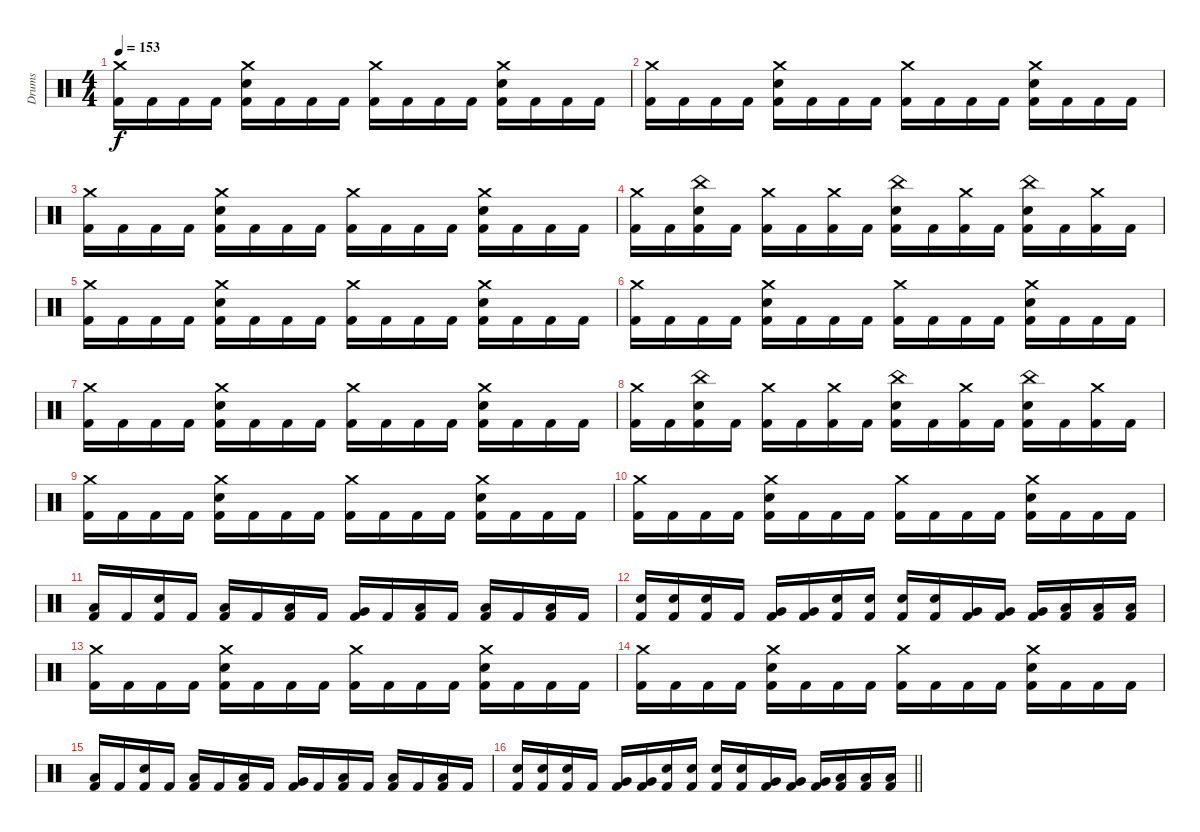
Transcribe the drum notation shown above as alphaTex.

\track ("Drums" "Drums") {instrument percussion}
\staff {score}
\articulation defaults
\ts (4 4)
\tempo 153
\clef neutral
\ks c
("Crash medium (hit)" "Kick (hit) 2").16{dy f} "Kick (hit) 2".16 "Kick (hit) 2".16 "Kick (hit) 2".16 ("Crash medium (hit)" "Electric Snare (hit)" "Kick (hit) 2").16 "Kick (hit) 2".16 "Kick (hit) 2".16 "Kick (hit) 2".16 ("Crash medium (hit)" "Kick (hit) 2").16 "Kick (hit) 2".16 "Kick (hit) 2".16 "Kick (hit) 2".16 ("Crash medium (hit)" "Electric Snare (hit)" "Kick (hit) 2").16 "Kick (hit) 2".16 "Kick (hit) 2".16 "Kick (hit) 2".16 |
("Crash medium (hit)" "Kick (hit) 2").16 "Kick (hit) 2".16 "Kick (hit) 2".16 "Kick (hit) 2".16 ("Crash medium (hit)" "Electric Snare (hit)" "Kick (hit) 2").16 "Kick (hit) 2".16 "Kick (hit) 2".16 "Kick (hit) 2".16 ("Crash medium (hit)" "Kick (hit) 2").16 "Kick (hit) 2".16 "Kick (hit) 2".16 "Kick (hit) 2".16 ("Crash medium (hit)" "Electric Snare (hit)" "Kick (hit) 2").16 "Kick (hit) 2".16 "Kick (hit) 2".16 "Kick (hit) 2".16 |
("Crash medium (hit)" "Kick (hit) 2").16 "Kick (hit) 2".16 "Kick (hit) 2".16 "Kick (hit) 2".16 ("Crash medium (hit)" "Electric Snare (hit)" "Kick (hit) 2").16 "Kick (hit) 2".16 "Kick (hit) 2".16 "Kick (hit) 2".16 ("Crash medium (hit)" "Kick (hit) 2").16 "Kick (hit) 2".16 "Kick (hit) 2".16 "Kick (hit) 2".16 ("Crash medium (hit)" "Electric Snare (hit)" "Kick (hit) 2").16 "Kick (hit) 2".16 "Kick (hit) 2".16 "Kick (hit) 2".16 |
("Crash medium (hit)" "Kick (hit) 2").16 "Kick (hit) 2".16 ("China (hit)" "Electric Snare (hit)" "Kick (hit) 2").16 "Kick (hit) 2".16 ("Crash medium (hit)" "Kick (hit) 2").16 "Kick (hit) 2".16 ("Crash medium (hit)" "Kick (hit) 2").16 "Kick (hit) 2".16 ("China (hit)" "Electric Snare (hit)" "Kick (hit) 2").16 "Kick (hit) 2".16 ("Crash medium (hit)" "Kick (hit) 2").16 "Kick (hit) 2".16 ("China (hit)" "Electric Snare (hit)" "Kick (hit) 2").16 "Kick (hit) 2".16 ("Crash medium (hit)" "Kick (hit) 2").16 "Kick (hit) 2".16 |
("Crash medium (hit)" "Kick (hit) 2").16 "Kick (hit) 2".16 "Kick (hit) 2".16 "Kick (hit) 2".16 ("Crash medium (hit)" "Electric Snare (hit)" "Kick (hit) 2").16 "Kick (hit) 2".16 "Kick (hit) 2".16 "Kick (hit) 2".16 ("Crash medium (hit)" "Kick (hit) 2").16 "Kick (hit) 2".16 "Kick (hit) 2".16 "Kick (hit) 2".16 ("Crash medium (hit)" "Electric Snare (hit)" "Kick (hit) 2").16 "Kick (hit) 2".16 "Kick (hit) 2".16 "Kick (hit) 2".16 |
("Crash medium (hit)" "Kick (hit) 2").16 "Kick (hit) 2".16 "Kick (hit) 2".16 "Kick (hit) 2".16 ("Crash medium (hit)" "Electric Snare (hit)" "Kick (hit) 2").16 "Kick (hit) 2".16 "Kick (hit) 2".16 "Kick (hit) 2".16 ("Crash medium (hit)" "Kick (hit) 2").16 "Kick (hit) 2".16 "Kick (hit) 2".16 "Kick (hit) 2".16 ("Crash medium (hit)" "Electric Snare (hit)" "Kick (hit) 2").16 "Kick (hit) 2".16 "Kick (hit) 2".16 "Kick (hit) 2".16 |
("Crash medium (hit)" "Kick (hit) 2").16 "Kick (hit) 2".16 "Kick (hit) 2".16 "Kick (hit) 2".16 ("Crash medium (hit)" "Electric Snare (hit)" "Kick (hit) 2").16 "Kick (hit) 2".16 "Kick (hit) 2".16 "Kick (hit) 2".16 ("Crash medium (hit)" "Kick (hit) 2").16 "Kick (hit) 2".16 "Kick (hit) 2".16 "Kick (hit) 2".16 ("Crash medium (hit)" "Electric Snare (hit)" "Kick (hit) 2").16 "Kick (hit) 2".16 "Kick (hit) 2".16 "Kick (hit) 2".16 |
("Crash medium (hit)" "Kick (hit) 2").16 "Kick (hit) 2".16 ("China (hit)" "Electric Snare (hit)" "Kick (hit) 2").16 "Kick (hit) 2".16 ("Crash medium (hit)" "Kick (hit) 2").16 "Kick (hit) 2".16 ("Crash medium (hit)" "Kick (hit) 2").16 "Kick (hit) 2".16 ("China (hit)" "Electric Snare (hit)" "Kick (hit) 2").16 "Kick (hit) 2".16 ("Crash medium (hit)" "Kick (hit) 2").16 "Kick (hit) 2".16 ("China (hit)" "Electric Snare (hit)" "Kick (hit) 2").16 "Kick (hit) 2".16 ("Crash medium (hit)" "Kick (hit) 2").16 "Kick (hit) 2".16 |
("Crash medium (hit)" "Kick (hit) 2").16 "Kick (hit) 2".16 "Kick (hit) 2".16 "Kick (hit) 2".16 ("Crash medium (hit)" "Electric Snare (hit)" "Kick (hit) 2").16 "Kick (hit) 2".16 "Kick (hit) 2".16 "Kick (hit) 2".16 ("Crash medium (hit)" "Kick (hit) 2").16 "Kick (hit) 2".16 "Kick (hit) 2".16 "Kick (hit) 2".16 ("Crash medium (hit)" "Electric Snare (hit)" "Kick (hit) 2").16 "Kick (hit) 2".16 "Kick (hit) 2".16 "Kick (hit) 2".16 |
("Crash medium (hit)" "Kick (hit) 2").16 "Kick (hit) 2".16 "Kick (hit) 2".16 "Kick (hit) 2".16 ("Crash medium (hit)" "Electric Snare (hit)" "Kick (hit) 2").16 "Kick (hit) 2".16 "Kick (hit) 2".16 "Kick (hit) 2".16 ("Crash medium (hit)" "Kick (hit) 2").16 "Kick (hit) 2".16 "Kick (hit) 2".16 "Kick (hit) 2".16 ("Crash medium (hit)" "Electric Snare (hit)" "Kick (hit) 2").16 "Kick (hit) 2".16 "Kick (hit) 2".16 "Kick (hit) 2".16 |
("Low Tom (hit)" "Kick (hit) 2").16 "Kick (hit) 2".16 ("Electric Snare (hit)" "Kick (hit) 2").16 "Kick (hit) 2".16 ("Low Tom (hit)" "Kick (hit) 2").16 "Kick (hit) 2".16 ("Low Tom (hit)" "Kick (hit) 2").16 "Kick (hit) 2".16 ("Very Low Tom (hit)" "Kick (hit) 2").16 "Kick (hit) 2".16 ("Low Floor Tom (hit)" "Kick (hit) 2").16 "Kick (hit) 2".16 ("Low Floor Tom (hit)" "Kick (hit) 2").16 "Kick (hit) 2".16 ("Low Floor Tom (hit)" "Kick (hit) 2").16 "Kick (hit) 2".16 |
("Electric Snare (hit)" "Kick (hit) 2").16 ("Electric Snare (hit)" "Kick (hit) 2").16 ("Electric Snare (hit)" "Kick (hit) 2").16 "Kick (hit) 2".16 ("Very Low Tom (hit)" "Kick (hit) 2").16 ("Very Low Tom (hit)" "Kick (hit) 2").16 ("Electric Snare (hit)" "Kick (hit) 2").16 ("Electric Snare (hit)" "Kick (hit) 2").16 ("Electric Snare (hit)" "Kick (hit) 2").16 ("Electric Snare (hit)" "Kick (hit) 2").16 ("Very Low Tom (hit)" "Kick (hit) 2").16 ("Very Low Tom (hit)" "Kick (hit) 2").16 ("Very Low Tom (hit)" "Kick (hit) 2").16 ("Low Tom (hit)" "Kick (hit) 2").16 ("Low Tom (hit)" "Kick (hit) 2").16 ("Low Tom (hit)" "Kick (hit) 2").16 |
("Crash medium (hit)" "Kick (hit) 2").16 "Kick (hit) 2".16 "Kick (hit) 2".16 "Kick (hit) 2".16 ("Crash medium (hit)" "Electric Snare (hit)" "Kick (hit) 2").16 "Kick (hit) 2".16 "Kick (hit) 2".16 "Kick (hit) 2".16 ("Crash medium (hit)" "Kick (hit) 2").16 "Kick (hit) 2".16 "Kick (hit) 2".16 "Kick (hit) 2".16 ("Crash medium (hit)" "Electric Snare (hit)" "Kick (hit) 2").16 "Kick (hit) 2".16 "Kick (hit) 2".16 "Kick (hit) 2".16 |
("Crash medium (hit)" "Kick (hit) 2").16 "Kick (hit) 2".16 "Kick (hit) 2".16 "Kick (hit) 2".16 ("Crash medium (hit)" "Electric Snare (hit)" "Kick (hit) 2").16 "Kick (hit) 2".16 "Kick (hit) 2".16 "Kick (hit) 2".16 ("Crash medium (hit)" "Kick (hit) 2").16 "Kick (hit) 2".16 "Kick (hit) 2".16 "Kick (hit) 2".16 ("Crash medium (hit)" "Electric Snare (hit)" "Kick (hit) 2").16 "Kick (hit) 2".16 "Kick (hit) 2".16 "Kick (hit) 2".16 |
("Low Tom (hit)" "Kick (hit) 2").16 "Kick (hit) 2".16 ("Electric Snare (hit)" "Kick (hit) 2").16 "Kick (hit) 2".16 ("Low Tom (hit)" "Kick (hit) 2").16 "Kick (hit) 2".16 ("Low Tom (hit)" "Kick (hit) 2").16 "Kick (hit) 2".16 ("Very Low Tom (hit)" "Kick (hit) 2").16 "Kick (hit) 2".16 ("Low Floor Tom (hit)" "Kick (hit) 2").16 "Kick (hit) 2".16 ("Low Floor Tom (hit)" "Kick (hit) 2").16 "Kick (hit) 2".16 ("Low Floor Tom (hit)" "Kick (hit) 2").16 "Kick (hit) 2".16 |
\barLineRight lightlight
("Electric Snare (hit)" "Kick (hit) 2").16 ("Electric Snare (hit)" "Kick (hit) 2").16 ("Electric Snare (hit)" "Kick (hit) 2").16 "Kick (hit) 2".16 ("Very Low Tom (hit)" "Kick (hit) 2").16 ("Very Low Tom (hit)" "Kick (hit) 2").16 ("Electric Snare (hit)" "Kick (hit) 2").16 ("Electric Snare (hit)" "Kick (hit) 2").16 ("Electric Snare (hit)" "Kick (hit) 2").16 ("Electric Snare (hit)" "Kick (hit) 2").16 ("Very Low Tom (hit)" "Kick (hit) 2").16 ("Very Low Tom (hit)" "Kick (hit) 2").16 ("Very Low Tom (hit)" "Kick (hit) 2").16 ("Low Tom (hit)" "Kick (hit) 2").16 ("Low Tom (hit)" "Kick (hit) 2").16 ("Low Tom (hit)" "Kick (hit) 2").16
